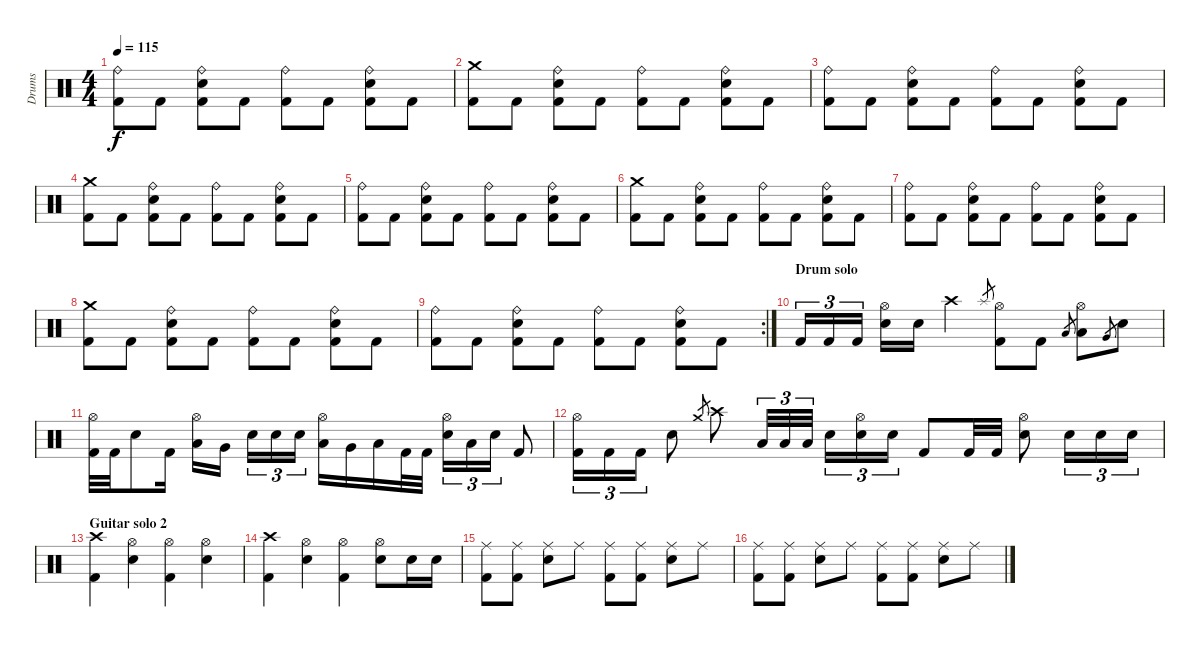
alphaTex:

\track ("Drums" "Drums") {instrument percussion}
\staff {score}
\articulation defaults
\ts (4 4)
\tempo 115
\clef neutral
\ks c
("Ride (bell)" "Kick (hit) 2").8{dy f} "Kick (hit) 2".8 ("Ride (bell)" "Kick (hit) 2" "Electric Snare (hit)").8 "Kick (hit) 2".8 ("Ride (bell)" "Kick (hit) 2").8 "Kick (hit) 2".8 ("Ride (bell)" "Kick (hit) 2" "Electric Snare (hit)").8 "Kick (hit) 2".8 |
("Crash medium (hit)" "Kick (hit) 2").8 "Kick (hit) 2".8 ("Ride (bell)" "Kick (hit) 2" "Electric Snare (hit)").8 "Kick (hit) 2".8 ("Ride (bell)" "Kick (hit) 2").8 "Kick (hit) 2".8 ("Ride (bell)" "Kick (hit) 2" "Electric Snare (hit)").8 "Kick (hit) 2".8 |
("Ride (bell)" "Kick (hit) 2").8 "Kick (hit) 2".8 ("Ride (bell)" "Kick (hit) 2" "Electric Snare (hit)").8 "Kick (hit) 2".8 ("Ride (bell)" "Kick (hit) 2").8 "Kick (hit) 2".8 ("Ride (bell)" "Kick (hit) 2" "Electric Snare (hit)").8 "Kick (hit) 2".8 |
("Crash medium (hit)" "Kick (hit) 2").8 "Kick (hit) 2".8 ("Ride (bell)" "Kick (hit) 2" "Electric Snare (hit)").8 "Kick (hit) 2".8 ("Ride (bell)" "Kick (hit) 2").8 "Kick (hit) 2".8 ("Ride (bell)" "Kick (hit) 2" "Electric Snare (hit)").8 "Kick (hit) 2".8 |
("Ride (bell)" "Kick (hit) 2").8 "Kick (hit) 2".8 ("Ride (bell)" "Kick (hit) 2" "Electric Snare (hit)").8 "Kick (hit) 2".8 ("Ride (bell)" "Kick (hit) 2").8 "Kick (hit) 2".8 ("Ride (bell)" "Kick (hit) 2" "Electric Snare (hit)").8 "Kick (hit) 2".8 |
("Crash medium (hit)" "Kick (hit) 2").8 "Kick (hit) 2".8 ("Ride (bell)" "Kick (hit) 2" "Electric Snare (hit)").8 "Kick (hit) 2".8 ("Ride (bell)" "Kick (hit) 2").8 "Kick (hit) 2".8 ("Ride (bell)" "Kick (hit) 2" "Electric Snare (hit)").8 "Kick (hit) 2".8 |
("Ride (bell)" "Kick (hit) 2").8 "Kick (hit) 2".8 ("Ride (bell)" "Kick (hit) 2" "Electric Snare (hit)").8 "Kick (hit) 2".8 ("Ride (bell)" "Kick (hit) 2").8 "Kick (hit) 2".8 ("Ride (bell)" "Kick (hit) 2" "Electric Snare (hit)").8 "Kick (hit) 2".8 |
("Crash medium (hit)" "Kick (hit) 2").8 "Kick (hit) 2".8 ("Ride (bell)" "Kick (hit) 2" "Electric Snare (hit)").8 "Kick (hit) 2".8 ("Ride (bell)" "Kick (hit) 2").8 "Kick (hit) 2".8 ("Ride (bell)" "Kick (hit) 2" "Electric Snare (hit)").8 "Kick (hit) 2".8 |
\rc 2
("Ride (bell)" "Kick (hit) 2").8 "Kick (hit) 2".8 ("Ride (bell)" "Kick (hit) 2" "Electric Snare (hit)").8 "Kick (hit) 2".8 ("Ride (bell)" "Kick (hit) 2").8 "Kick (hit) 2".8 ("Ride (bell)" "Kick (hit) 2" "Electric Snare (hit)").8 "Kick (hit) 2".8 |
\section ("" "Drum solo")
"Kick (hit) 2".16{tu (3 2)} "Kick (hit) 2".16{tu (3 2)} "Kick (hit) 2".16{tu (3 2)} ("Hi-Hat (open)" "Electric Snare (hit)").16 "Electric Snare (hit)".16 "Crash high (hit)".4 "Splash (hit)".8{gr} ("Hi-Hat (open)" "Kick (hit) 2").8 "Kick (hit) 2".8 "Low Floor Tom (hit)".8{gr} ("Hi-Hat (open)" "Low Floor Tom (hit)").8 "Very Low Tom (hit)".8{gr} "Electric Snare (hit)".8 |
("Hi-Hat (open)" "Kick (hit) 2").32 "Kick (hit) 2".32 "Electric Snare (hit)".8 "Kick (hit) 2".16 ("Hi-Hat (open)" "Low Floor Tom (hit)").16 "Very Low Tom (hit)".16 "Electric Snare (hit)".16{tu (3 2)} "Electric Snare (hit)".16{tu (3 2)} "Electric Snare (hit)".16{tu (3 2)} ("Hi-Hat (open)" "Low Floor Tom (hit)").16 "Very Low Tom (hit)".16 "Low Tom (hit)".16 "Kick (hit) 2".32 "Kick (hit) 2".32 ("Hi-Hat (open)" "Electric Snare (hit)").16{tu (3 2)} "Low Floor Tom (hit)".16{tu (3 2)} "Electric Snare (hit)".16{tu (3 2)} "Kick (hit) 2".8 |
("Hi-Hat (open)" "Kick (hit) 2").16{tu (3 2)} "Kick (hit) 2".16{tu (3 2)} "Kick (hit) 2".16{tu (3 2)} "Electric Snare (hit)".8 "Crash medium (hit)".8{gr} "Crash high (hit)".8 "Low Floor Tom (hit)".32{tu (3 2)} "Low Floor Tom (hit)".32{tu (3 2)} "Low Floor Tom (hit)".32{tu (3 2)} "Electric Snare (hit)".16{tu (3 2)} ("Hi-Hat (open)" "Electric Snare (hit)").16{tu (3 2)} "Electric Snare (hit)".16{tu (3 2)} "Kick (hit) 2".8 "Kick (hit) 2".32 "Kick (hit) 2".32 ("Hi-Hat (open)" "Electric Snare (hit)").8 "Electric Snare (hit)".16{tu (3 2)} "Electric Snare (hit)".16{tu (3 2)} "Electric Snare (hit)".16{tu (3 2)} |
\section ("" "Guitar solo 2")
("Crash high (hit)" "Kick (hit) 2").4 ("Hi-Hat (open)" "Electric Snare (hit)").4 ("Hi-Hat (open)" "Kick (hit) 2").4 ("Hi-Hat (open)" "Electric Snare (hit)").4 |
("Crash high (hit)" "Kick (hit) 2").4 ("Hi-Hat (open)" "Electric Snare (hit)").4 ("Hi-Hat (open)" "Kick (hit) 2").4 ("Hi-Hat (open)" "Electric Snare (hit)").8 "Electric Snare (hit)".16 "Electric Snare (hit)".16 |
("Ride (middle)" "Kick (hit) 2").8 ("Ride (middle)" "Kick (hit) 2").8 ("Ride (middle)" "Electric Snare (hit)").8 "Ride (middle)".8 ("Ride (middle)" "Kick (hit) 2").8 ("Ride (middle)" "Kick (hit) 2").8 ("Ride (middle)" "Electric Snare (hit)").8 "Ride (middle)".8 |
("Ride (middle)" "Kick (hit) 2").8 ("Ride (middle)" "Kick (hit) 2").8 ("Ride (middle)" "Electric Snare (hit)").8 "Ride (middle)".8 ("Ride (middle)" "Kick (hit) 2").8 ("Ride (middle)" "Kick (hit) 2").8 ("Ride (middle)" "Electric Snare (hit)").8 "Ride (middle)".8
